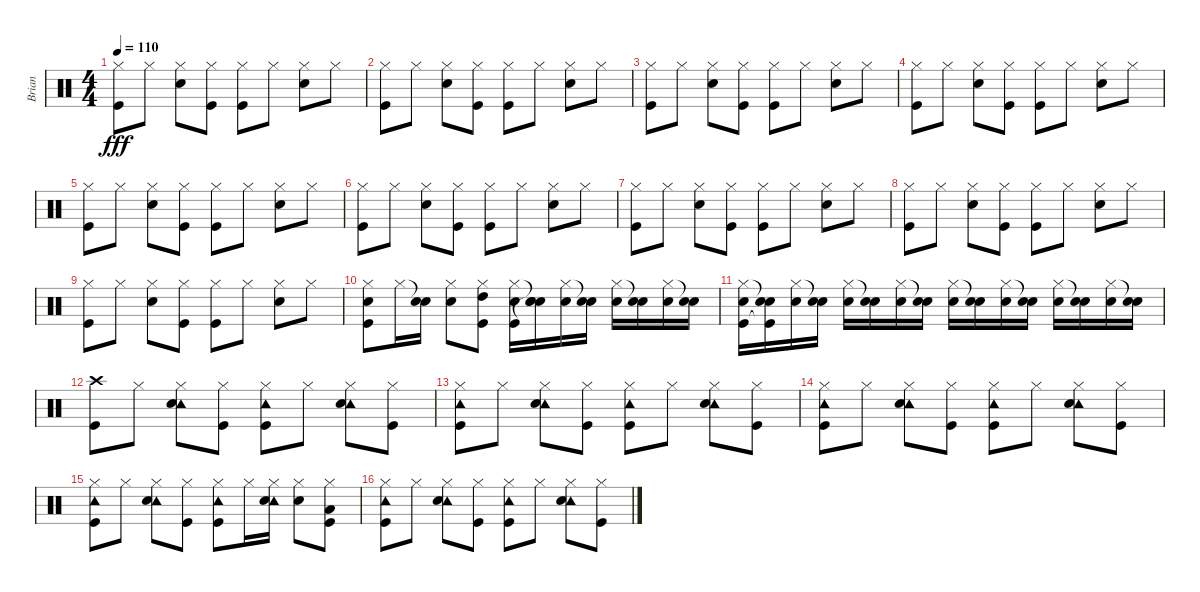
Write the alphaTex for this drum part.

\track ("Brian" "Brian") {instrument percussion}
\staff {score}
\articulation defaults
\ts (4 4)
\tempo 110
\clef neutral
\ks c
("Hi-Hat (closed)" "Kick (hit)").8{dy fff} "Hi-Hat (closed)".8 ("Hi-Hat (closed)" "Electric Snare (hit)").8 ("Hi-Hat (closed)" "Kick (hit)").8 ("Hi-Hat (closed)" "Kick (hit)").8 "Hi-Hat (closed)".8 ("Hi-Hat (closed)" "Electric Snare (hit)").8 "Hi-Hat (closed)".8 |
("Hi-Hat (closed)" "Kick (hit)").8 "Hi-Hat (closed)".8 ("Hi-Hat (closed)" "Electric Snare (hit)").8 ("Hi-Hat (closed)" "Kick (hit)").8 ("Hi-Hat (closed)" "Kick (hit)").8 "Hi-Hat (closed)".8 ("Hi-Hat (closed)" "Electric Snare (hit)").8 "Hi-Hat (closed)".8 |
("Hi-Hat (closed)" "Kick (hit)").8 "Hi-Hat (closed)".8 ("Hi-Hat (closed)" "Electric Snare (hit)").8 ("Hi-Hat (closed)" "Kick (hit)").8 ("Hi-Hat (closed)" "Kick (hit)").8 "Hi-Hat (closed)".8 ("Hi-Hat (closed)" "Electric Snare (hit)").8 "Hi-Hat (closed)".8 |
("Hi-Hat (closed)" "Kick (hit)").8 "Hi-Hat (closed)".8 ("Hi-Hat (closed)" "Electric Snare (hit)").8 ("Hi-Hat (closed)" "Kick (hit)").8 ("Hi-Hat (closed)" "Kick (hit)").8 "Hi-Hat (closed)".8 ("Hi-Hat (closed)" "Electric Snare (hit)").8 "Hi-Hat (closed)".8 |
("Hi-Hat (closed)" "Kick (hit)").8 "Hi-Hat (closed)".8 ("Hi-Hat (closed)" "Electric Snare (hit)").8 ("Hi-Hat (closed)" "Kick (hit)").8 ("Hi-Hat (closed)" "Kick (hit)").8 "Hi-Hat (closed)".8 ("Hi-Hat (closed)" "Electric Snare (hit)").8 "Hi-Hat (closed)".8 |
("Hi-Hat (closed)" "Kick (hit)").8 "Hi-Hat (closed)".8 ("Hi-Hat (closed)" "Electric Snare (hit)").8 ("Hi-Hat (closed)" "Kick (hit)").8 ("Hi-Hat (closed)" "Kick (hit)").8 "Hi-Hat (closed)".8 ("Hi-Hat (closed)" "Electric Snare (hit)").8 "Hi-Hat (closed)".8 |
("Hi-Hat (closed)" "Kick (hit)").8 "Hi-Hat (closed)".8 ("Hi-Hat (closed)" "Electric Snare (hit)").8 ("Hi-Hat (closed)" "Kick (hit)").8 ("Hi-Hat (closed)" "Kick (hit)").8 "Hi-Hat (closed)".8 ("Hi-Hat (closed)" "Electric Snare (hit)").8 "Hi-Hat (closed)".8 |
("Hi-Hat (closed)" "Kick (hit)").8 "Hi-Hat (closed)".8 ("Hi-Hat (closed)" "Electric Snare (hit)").8 ("Hi-Hat (closed)" "Kick (hit)").8 ("Hi-Hat (closed)" "Kick (hit)").8 "Hi-Hat (closed)".8 ("Hi-Hat (closed)" "Electric Snare (hit)").8 "Hi-Hat (closed)".8 |
("Hi-Hat (closed)" "Kick (hit)").8 "Hi-Hat (closed)".8 ("Hi-Hat (closed)" "Electric Snare (hit)").8 ("Hi-Hat (closed)" "Kick (hit)").8 ("Hi-Hat (closed)" "Kick (hit)").8 "Hi-Hat (closed)".8 ("Hi-Hat (closed)" "Electric Snare (hit)").8 "Hi-Hat (closed)".8 |
("Hi-Hat (closed)" "Electric Snare (hit)" "Kick (hit)").8 "Hi-Hat (closed)".16 ("Snare (hit)"{t} "Electric Snare (hit)").16 ("Hi-Hat (closed)" "Electric Snare (hit)").8 ("Hi-Hat (closed)" "High Tom (hit)" "Kick (hit)").8 ("Hi-Hat (closed)" "Electric Snare (hit)" "Kick (hit)").16 ("Snare (hit)"{t} "Electric Snare (hit)" "Snare (hit)"{t}).16 ("Hi-Hat (closed)" "Electric Snare (hit)").16 ("Snare (hit)"{t} "Electric Snare (hit)").16 ("Hi-Hat (closed)" "Electric Snare (hit)").16 ("Snare (hit)"{t} "Electric Snare (hit)").16 ("Hi-Hat (closed)" "Electric Snare (hit)").16 ("Snare (hit)"{t} "Electric Snare (hit)").16 |
("Hi-Hat (closed)" "Electric Snare (hit)" "Kick (hit)").16 ("Snare (hit)"{t} "Electric Snare (hit)" "Kick (hit)"{t}).16 ("Hi-Hat (closed)" "Electric Snare (hit)").16 ("Snare (hit)"{t} "Electric Snare (hit)").16 ("Hi-Hat (closed)" "Electric Snare (hit)").16 ("Snare (hit)"{t} "Electric Snare (hit)").16 ("Hi-Hat (closed)" "Electric Snare (hit)").16 ("Snare (hit)"{t} "Electric Snare (hit)").16 ("Hi-Hat (closed)" "Electric Snare (hit)").16 ("Snare (hit)"{t} "Electric Snare (hit)").16 ("Hi-Hat (closed)" "Electric Snare (hit)").16 ("Snare (hit)"{t} "Electric Snare (hit)").16 ("Hi-Hat (closed)" "Electric Snare (hit)").16 ("Snare (hit)"{t} "Electric Snare (hit)").16 ("Hi-Hat (closed)" "Electric Snare (hit)").16 ("Snare (hit)"{t} "Electric Snare (hit)").16 |
("Crash high (hit)" "Kick (hit)").8 "Hi-Hat (closed)".8 ("Tambourine (hit)" "Hi-Hat (closed)" "Electric Snare (hit)").8 ("Hi-Hat (closed)" "Kick (hit)").8 ("Tambourine (hit)" "Hi-Hat (closed)" "Kick (hit)").8 "Hi-Hat (closed)".8 ("Tambourine (hit)" "Hi-Hat (closed)" "Electric Snare (hit)").8 ("Hi-Hat (closed)" "Kick (hit)").8 |
("Tambourine (hit)" "Hi-Hat (closed)" "Kick (hit)").8 "Hi-Hat (closed)".8 ("Tambourine (hit)" "Hi-Hat (closed)" "Electric Snare (hit)").8 ("Hi-Hat (closed)" "Kick (hit)").8 ("Tambourine (hit)" "Hi-Hat (closed)" "Kick (hit)").8 "Hi-Hat (closed)".8 ("Tambourine (hit)" "Hi-Hat (closed)" "Electric Snare (hit)").8 ("Hi-Hat (closed)" "Kick (hit)").8 |
("Tambourine (hit)" "Hi-Hat (closed)" "Kick (hit)").8 "Hi-Hat (closed)".8 ("Tambourine (hit)" "Hi-Hat (closed)" "Electric Snare (hit)").8 ("Hi-Hat (closed)" "Kick (hit)").8 ("Tambourine (hit)" "Hi-Hat (closed)" "Kick (hit)").8 "Hi-Hat (closed)".8 ("Tambourine (hit)" "Hi-Hat (closed)" "Electric Snare (hit)").8 ("Hi-Hat (closed)" "Kick (hit)").8 |
("Tambourine (hit)" "Hi-Hat (closed)" "Kick (hit)").8 "Hi-Hat (closed)".8 ("Tambourine (hit)" "Hi-Hat (closed)" "Electric Snare (hit)").8 ("Hi-Hat (closed)" "Kick (hit)").8 ("Tambourine (hit)" "Hi-Hat (closed)" "Kick (hit)").8 "Hi-Hat (closed)".16 ("Tambourine (hit)" "Hi-Hat (closed)" "Electric Snare (hit)").16 ("Hi-Hat (closed)" "Electric Snare (hit)").8 ("Hi-Hat (closed)" "Low Tom (hit)" "Kick (hit)").8 |
("Tambourine (hit)" "Hi-Hat (closed)" "Kick (hit)").8 "Hi-Hat (closed)".8 ("Tambourine (hit)" "Hi-Hat (closed)" "Electric Snare (hit)").8 ("Hi-Hat (closed)" "Kick (hit)").8 ("Tambourine (hit)" "Hi-Hat (closed)" "Kick (hit)").8 "Hi-Hat (closed)".8 ("Tambourine (hit)" "Hi-Hat (closed)" "Electric Snare (hit)").8 ("Hi-Hat (closed)" "Kick (hit)").8
